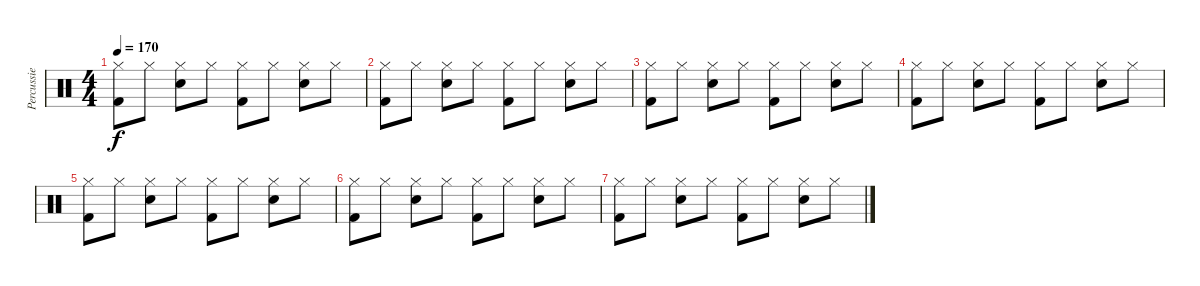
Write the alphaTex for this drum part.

\track ("Percussie" "Percussie") {instrument percussion}
\staff {score}
\articulation defaults
\ts (4 4)
\tempo 170
\clef neutral
\ks c
("Hi-Hat (closed)" "Kick (hit) 2").8{dy f} "Hi-Hat (closed)".8 ("Hi-Hat (closed)" "Electric Snare (hit)").8 "Hi-Hat (closed)".8 ("Hi-Hat (closed)" "Kick (hit) 2").8 "Hi-Hat (closed)".8 ("Hi-Hat (closed)" "Electric Snare (hit)").8 "Hi-Hat (closed)".8 |
("Hi-Hat (closed)" "Kick (hit) 2").8 "Hi-Hat (closed)".8 ("Hi-Hat (closed)" "Electric Snare (hit)").8 "Hi-Hat (closed)".8 ("Hi-Hat (closed)" "Kick (hit) 2").8 "Hi-Hat (closed)".8 ("Hi-Hat (closed)" "Electric Snare (hit)").8 "Hi-Hat (closed)".8 |
("Hi-Hat (closed)" "Kick (hit) 2").8 "Hi-Hat (closed)".8 ("Hi-Hat (closed)" "Electric Snare (hit)").8 "Hi-Hat (closed)".8 ("Hi-Hat (closed)" "Kick (hit) 2").8 "Hi-Hat (closed)".8 ("Hi-Hat (closed)" "Electric Snare (hit)").8 "Hi-Hat (closed)".8 |
("Hi-Hat (closed)" "Kick (hit) 2").8 "Hi-Hat (closed)".8 ("Hi-Hat (closed)" "Electric Snare (hit)").8 "Hi-Hat (closed)".8 ("Hi-Hat (closed)" "Kick (hit) 2").8 "Hi-Hat (closed)".8 ("Hi-Hat (closed)" "Electric Snare (hit)").8 "Hi-Hat (closed)".8 |
("Hi-Hat (closed)" "Kick (hit) 2").8 "Hi-Hat (closed)".8 ("Hi-Hat (closed)" "Electric Snare (hit)").8 "Hi-Hat (closed)".8 ("Hi-Hat (closed)" "Kick (hit) 2").8 "Hi-Hat (closed)".8 ("Hi-Hat (closed)" "Electric Snare (hit)").8 "Hi-Hat (closed)".8 |
("Hi-Hat (closed)" "Kick (hit) 2").8 "Hi-Hat (closed)".8 ("Hi-Hat (closed)" "Electric Snare (hit)").8 "Hi-Hat (closed)".8 ("Hi-Hat (closed)" "Kick (hit) 2").8 "Hi-Hat (closed)".8 ("Hi-Hat (closed)" "Electric Snare (hit)").8 "Hi-Hat (closed)".8 |
("Hi-Hat (closed)" "Kick (hit) 2").8 "Hi-Hat (closed)".8 ("Hi-Hat (closed)" "Electric Snare (hit)").8 "Hi-Hat (closed)".8 ("Hi-Hat (closed)" "Kick (hit) 2").8 "Hi-Hat (closed)".8 ("Hi-Hat (closed)" "Electric Snare (hit)").8 "Hi-Hat (closed)".8
